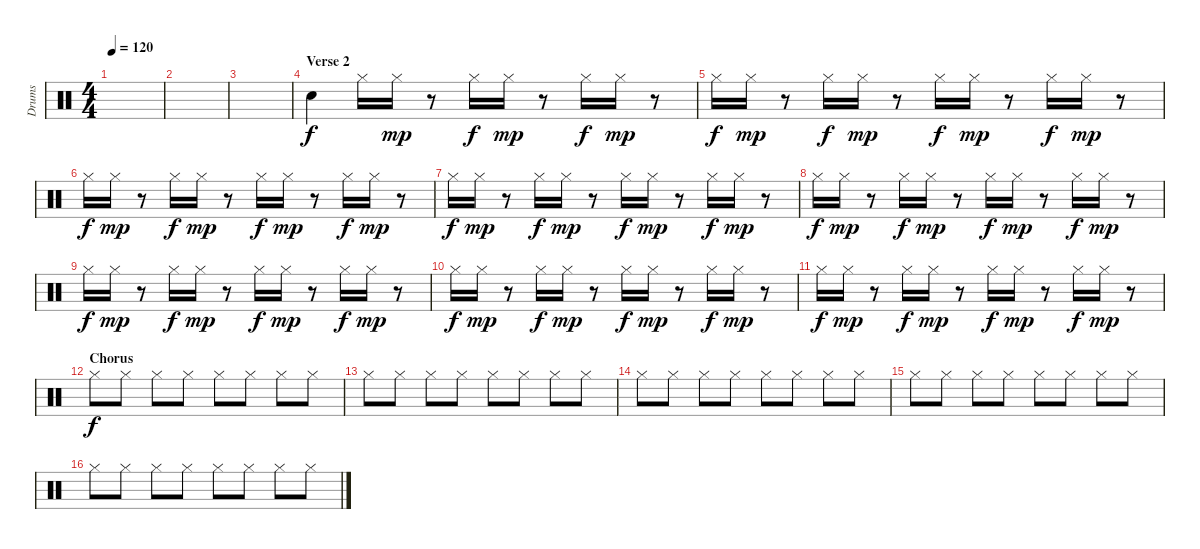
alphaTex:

\track ("Drums" "Drums") {instrument percussion}
\staff {score}
\articulation defaults
\ts (4 4)
\tempo 120
\clef neutral
\ks c
|
|
|
\section ("" "Verse 2")
"Snare (hit) 2".4 "Hi-Hat (closed)".16{dy f} "Hi-Hat (closed)".16{dy mp} r.8 "Hi-Hat (closed)".16{dy f} "Hi-Hat (closed)".16{dy mp} r.8 "Hi-Hat (closed)".16{dy f} "Hi-Hat (closed)".16{dy mp} r.8 |
"Hi-Hat (closed)".16{dy f} "Hi-Hat (closed)".16{dy mp} r.8 "Hi-Hat (closed)".16{dy f} "Hi-Hat (closed)".16{dy mp} r.8 "Hi-Hat (closed)".16{dy f} "Hi-Hat (closed)".16{dy mp} r.8 "Hi-Hat (closed)".16{dy f} "Hi-Hat (closed)".16{dy mp} r.8 |
"Hi-Hat (closed)".16{dy f} "Hi-Hat (closed)".16{dy mp} r.8 "Hi-Hat (closed)".16{dy f} "Hi-Hat (closed)".16{dy mp} r.8 "Hi-Hat (closed)".16{dy f} "Hi-Hat (closed)".16{dy mp} r.8 "Hi-Hat (closed)".16{dy f} "Hi-Hat (closed)".16{dy mp} r.8 |
"Hi-Hat (closed)".16{dy f} "Hi-Hat (closed)".16{dy mp} r.8 "Hi-Hat (closed)".16{dy f} "Hi-Hat (closed)".16{dy mp} r.8 "Hi-Hat (closed)".16{dy f} "Hi-Hat (closed)".16{dy mp} r.8 "Hi-Hat (closed)".16{dy f} "Hi-Hat (closed)".16{dy mp} r.8 |
"Hi-Hat (closed)".16{dy f} "Hi-Hat (closed)".16{dy mp} r.8 "Hi-Hat (closed)".16{dy f} "Hi-Hat (closed)".16{dy mp} r.8 "Hi-Hat (closed)".16{dy f} "Hi-Hat (closed)".16{dy mp} r.8 "Hi-Hat (closed)".16{dy f} "Hi-Hat (closed)".16{dy mp} r.8 |
"Hi-Hat (closed)".16{dy f} "Hi-Hat (closed)".16{dy mp} r.8 "Hi-Hat (closed)".16{dy f} "Hi-Hat (closed)".16{dy mp} r.8 "Hi-Hat (closed)".16{dy f} "Hi-Hat (closed)".16{dy mp} r.8 "Hi-Hat (closed)".16{dy f} "Hi-Hat (closed)".16{dy mp} r.8 |
"Hi-Hat (closed)".16{dy f} "Hi-Hat (closed)".16{dy mp} r.8 "Hi-Hat (closed)".16{dy f} "Hi-Hat (closed)".16{dy mp} r.8 "Hi-Hat (closed)".16{dy f} "Hi-Hat (closed)".16{dy mp} r.8 "Hi-Hat (closed)".16{dy f} "Hi-Hat (closed)".16{dy mp} r.8 |
"Hi-Hat (closed)".16{dy f} "Hi-Hat (closed)".16{dy mp} r.8 "Hi-Hat (closed)".16{dy f} "Hi-Hat (closed)".16{dy mp} r.8 "Hi-Hat (closed)".16{dy f} "Hi-Hat (closed)".16{dy mp} r.8 "Hi-Hat (closed)".16{dy f} "Hi-Hat (closed)".16{dy mp} r.8 |
\section ("" "Chorus")
"Hi-Hat (closed)".8{dy f} "Hi-Hat (closed)".8 "Hi-Hat (closed)".8 "Hi-Hat (closed)".8 "Hi-Hat (closed)".8 "Hi-Hat (closed)".8 "Hi-Hat (closed)".8 "Hi-Hat (closed)".8 |
"Hi-Hat (closed)".8 "Hi-Hat (closed)".8 "Hi-Hat (closed)".8 "Hi-Hat (closed)".8 "Hi-Hat (closed)".8 "Hi-Hat (closed)".8 "Hi-Hat (closed)".8 "Hi-Hat (closed)".8 |
"Hi-Hat (closed)".8 "Hi-Hat (closed)".8 "Hi-Hat (closed)".8 "Hi-Hat (closed)".8 "Hi-Hat (closed)".8 "Hi-Hat (closed)".8 "Hi-Hat (closed)".8 "Hi-Hat (closed)".8 |
"Hi-Hat (closed)".8 "Hi-Hat (closed)".8 "Hi-Hat (closed)".8 "Hi-Hat (closed)".8 "Hi-Hat (closed)".8 "Hi-Hat (closed)".8 "Hi-Hat (closed)".8 "Hi-Hat (closed)".8 |
"Hi-Hat (closed)".8 "Hi-Hat (closed)".8 "Hi-Hat (closed)".8 "Hi-Hat (closed)".8 "Hi-Hat (closed)".8 "Hi-Hat (closed)".8 "Hi-Hat (closed)".8 "Hi-Hat (closed)".8
